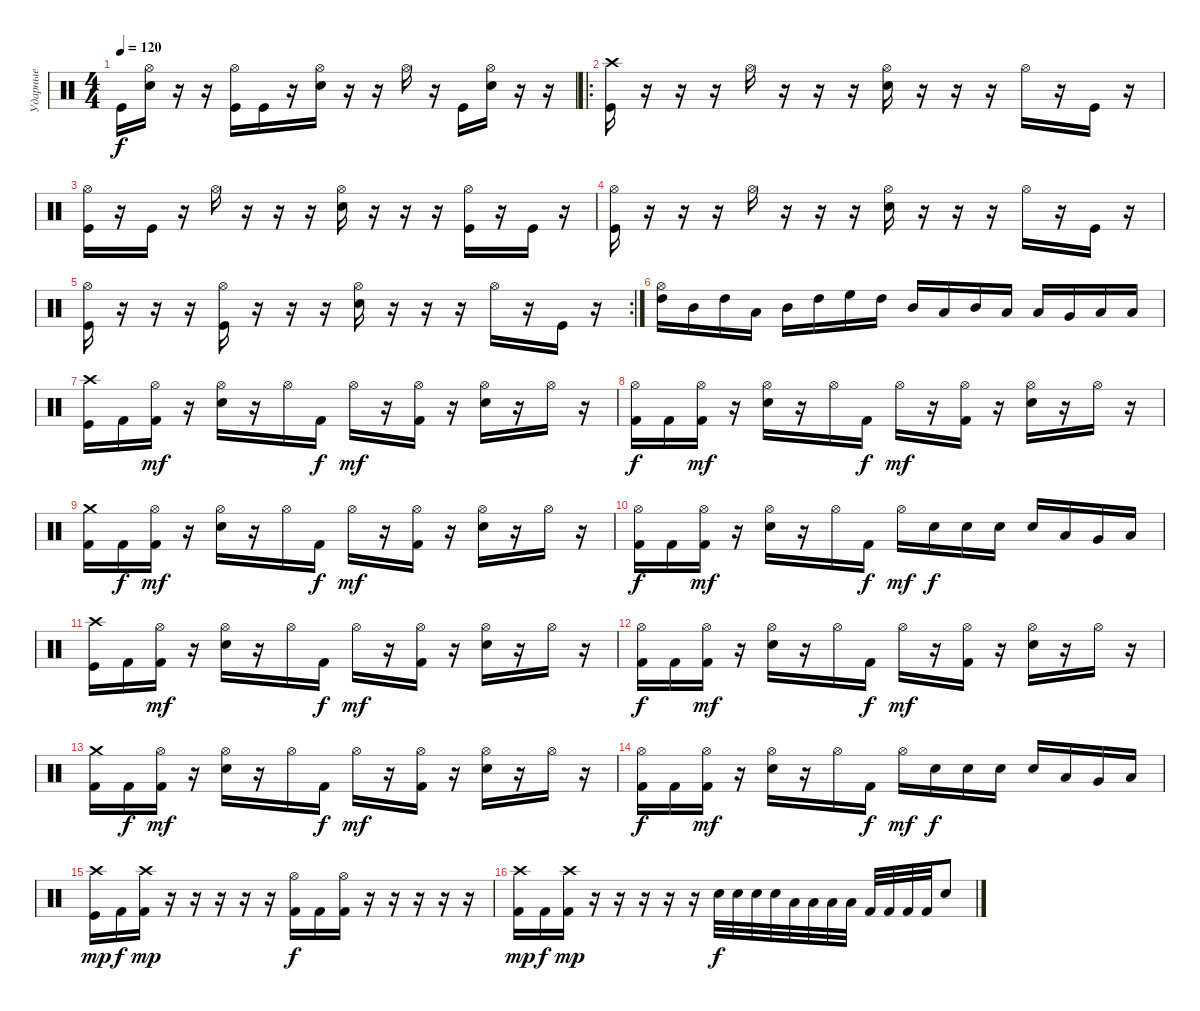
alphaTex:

\track ("Ударные" "Ударные") {instrument percussion}
\staff {score}
\articulation defaults
\ts (4 4)
\tempo 120
\clef neutral
\ks c "Kick (hit)".16{dy f}
("Snare (hit) 2" "Hi-Hat (open)").16 r.16 r.16 ("Kick (hit)" "Hi-Hat (open)").16 "Kick (hit)".16 r.16 ("Snare (hit) 2" "Hi-Hat (open)").16 r.16 r.16 "Hi-Hat (open)".16 r.16 "Kick (hit)".16 ("Snare (hit) 2" "Hi-Hat (open)").16 r.16 r.16 |
\ro
("Crash high (hit)" "Kick (hit)").16 r.16 r.16 r.16 "Hi-Hat (open)".16 r.16 r.16 r.16 ("Hi-Hat (open)" "Snare (hit) 2").16 r.16 r.16 r.16 "Hi-Hat (open)".16 r.16 "Kick (hit)".16 r.16 |
("Hi-Hat (open)" "Kick (hit)").16 r.16 "Kick (hit)".16 r.16 "Hi-Hat (open)".16 r.16 r.16 r.16 ("Hi-Hat (open)" "Snare (hit) 2").16 r.16 r.16 r.16 ("Hi-Hat (open)" "Kick (hit)").16 r.16 "Kick (hit)".16 r.16 |
("Hi-Hat (open)" "Kick (hit)").16 r.16 r.16 r.16 "Hi-Hat (open)".16 r.16 r.16 r.16 ("Hi-Hat (open)" "Snare (hit) 2").16 r.16 r.16 r.16 "Hi-Hat (open)".16 r.16 "Kick (hit)".16 r.16 |
\rc 2
("Hi-Hat (open)" "Kick (hit)").16 r.16 r.16 r.16 ("Hi-Hat (open)" "Kick (hit)").16 r.16 r.16 r.16 ("Hi-Hat (open)" "Snare (hit) 2").16 r.16 r.16 r.16 "Hi-Hat (open)".16 r.16 "Kick (hit)".16 r.16 |
("High Tom (hit)" "Hi-Hat (open)").16 "Mid Tom (hit)".16 "High Tom (hit)".16 "Low Tom (hit)".16 "Mid Tom (hit)".16 "High Tom (hit)".16 "High Floor Tom (hit)".16 "High Tom (hit)".16 "Mid Tom (hit)".16 "Low Tom (hit)".16 "Mid Tom (hit)".16 "Low Tom (hit)".16 "Low Floor Tom (hit)".16 "Very Low Tom (hit)".16 "Low Tom (hit)".16 "Low Tom (hit)".16 |
("Kick (hit)" "Crash high (hit)").16 "Kick (hit) 2".16 ("Hi-Hat (open)" "Kick (hit) 2").16{dy mf} r.16 ("Hi-Hat (open)" "Snare (hit) 2").16 r.16 "Hi-Hat (open)".16 "Kick (hit) 2".16{dy f} "Hi-Hat (open)".16{dy mf} r.16 ("Hi-Hat (open)" "Kick (hit) 2").16 r.16 ("Hi-Hat (open)" "Snare (hit) 2").16 r.16 "Hi-Hat (open)".16 r.16 |
("Hi-Hat (open)" "Kick (hit) 2").16{dy f} "Kick (hit) 2".16 ("Hi-Hat (open)" "Kick (hit) 2").16{dy mf} r.16 ("Hi-Hat (open)" "Snare (hit) 2").16 r.16 "Hi-Hat (open)".16 "Kick (hit) 2".16{dy f} "Hi-Hat (open)".16{dy mf} r.16 ("Hi-Hat (open)" "Kick (hit) 2").16 r.16 ("Hi-Hat (open)" "Snare (hit) 2").16 r.16 "Hi-Hat (open)".16 r.16 |
("Crash medium (hit)" "Kick (hit) 2").16 "Kick (hit) 2".16{dy f} ("Hi-Hat (open)" "Kick (hit) 2").16{dy mf} r.16 ("Hi-Hat (open)" "Snare (hit) 2").16 r.16 "Hi-Hat (open)".16 "Kick (hit) 2".16{dy f} "Hi-Hat (open)".16{dy mf} r.16 ("Hi-Hat (open)" "Kick (hit) 2").16 r.16 ("Hi-Hat (open)" "Snare (hit) 2").16 r.16 "Hi-Hat (open)".16 r.16 |
("Hi-Hat (open)" "Kick (hit) 2").16{dy f} "Kick (hit) 2".16 ("Hi-Hat (open)" "Kick (hit) 2").16{dy mf} r.16 ("Hi-Hat (open)" "Snare (hit) 2").16 r.16 "Hi-Hat (open)".16 "Kick (hit) 2".16{dy f} "Hi-Hat (open)".16{dy mf} "Snare (hit) 2".16{dy f} "Snare (hit) 2".16 "Snare (hit) 2".16 "Snare (hit) 2".16 "Low Tom (hit)".16 "Very Low Tom (hit)".16 "Low Floor Tom (hit)".16 |
("Kick (hit)" "Crash high (hit)").16 "Kick (hit) 2".16 ("Hi-Hat (open)" "Kick (hit) 2").16{dy mf} r.16 ("Hi-Hat (open)" "Snare (hit) 2").16 r.16 "Hi-Hat (open)".16 "Kick (hit) 2".16{dy f} "Hi-Hat (open)".16{dy mf} r.16 ("Hi-Hat (open)" "Kick (hit) 2").16 r.16 ("Hi-Hat (open)" "Snare (hit) 2").16 r.16 "Hi-Hat (open)".16 r.16 |
("Hi-Hat (open)" "Kick (hit) 2").16{dy f} "Kick (hit) 2".16 ("Hi-Hat (open)" "Kick (hit) 2").16{dy mf} r.16 ("Hi-Hat (open)" "Snare (hit) 2").16 r.16 "Hi-Hat (open)".16 "Kick (hit) 2".16{dy f} "Hi-Hat (open)".16{dy mf} r.16 ("Hi-Hat (open)" "Kick (hit) 2").16 r.16 ("Hi-Hat (open)" "Snare (hit) 2").16 r.16 "Hi-Hat (open)".16 r.16 |
("Crash medium (hit)" "Kick (hit) 2").16 "Kick (hit) 2".16{dy f} ("Hi-Hat (open)" "Kick (hit) 2").16{dy mf} r.16 ("Hi-Hat (open)" "Snare (hit) 2").16 r.16 "Hi-Hat (open)".16 "Kick (hit) 2".16{dy f} "Hi-Hat (open)".16{dy mf} r.16 ("Hi-Hat (open)" "Kick (hit) 2").16 r.16 ("Hi-Hat (open)" "Snare (hit) 2").16 r.16 "Hi-Hat (open)".16 r.16 |
("Hi-Hat (open)" "Kick (hit) 2").16{dy f} "Kick (hit) 2".16 ("Hi-Hat (open)" "Kick (hit) 2").16{dy mf} r.16 ("Hi-Hat (open)" "Snare (hit) 2").16 r.16 "Hi-Hat (open)".16 "Kick (hit) 2".16{dy f} "Hi-Hat (open)".16{dy mf} "Snare (hit) 2".16{dy f} "Snare (hit) 2".16 "Snare (hit) 2".16 "Snare (hit) 2".16 "Low Tom (hit)".16 "Very Low Tom (hit)".16 "Low Floor Tom (hit)".16 |
("Crash high (hit)" "Kick (hit)").16{dy mp} "Kick (hit) 2".16{dy f} ("Crash high (hit)" "Kick (hit) 2").16{dy mp} r.16 r.16 r.16 r.16 r.16 ("Hi-Hat (open)" "Kick (hit) 2").16{dy f} "Kick (hit) 2".16 ("Hi-Hat (open)" "Kick (hit) 2").16 r.16 r.16 r.16 r.16 r.16 |
("Crash high (hit)" "Kick (hit) 2").16{dy mp} "Kick (hit) 2".16{dy f} ("Crash high (hit)" "Kick (hit) 2").16{dy mp} r.16 r.16 r.16 r.16 r.16 "Snare (hit) 2".32{dy f} "Snare (hit) 2".32 "Snare (hit) 2".32 "Snare (hit) 2".32 "Low Tom (hit)".32 "Low Tom (hit)".32 "Low Tom (hit)".32 "Low Tom (hit)".32 "Kick (hit) 2".32 "Kick (hit) 2".32 "Kick (hit) 2".32 "Kick (hit) 2".32 "Snare (hit) 2".8
